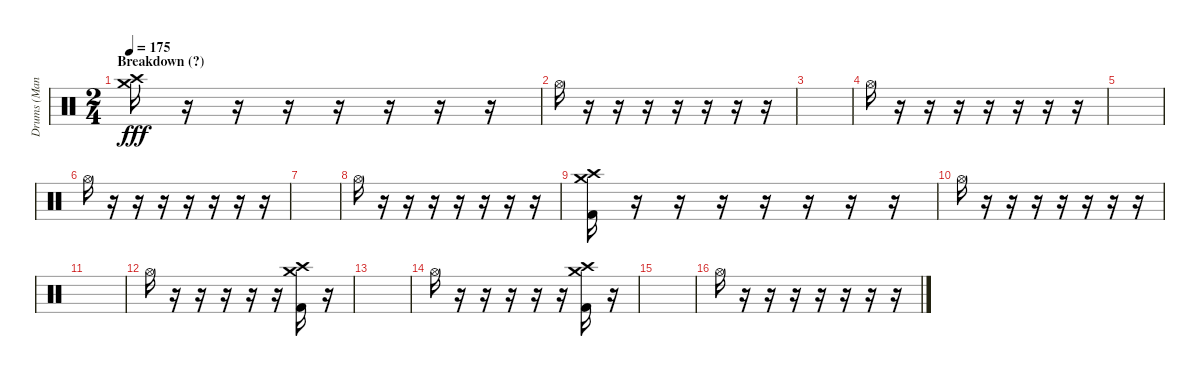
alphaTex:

\track ("Drums (Mancino)" "Drums (Man") {instrument percussion}
\staff {score}
\articulation defaults
\ts (2 4)
\section ("" "Breakdown (?)")
\tempo 175
\clef neutral
\ks c
("Crash medium (hit)" "Crash high (hit)").16{dy fff} r.16 r.16 r.16 r.16 r.16 r.16 r.16 |
"Hi-Hat (open)".16 r.16 r.16 r.16 r.16 r.16 r.16 r.16 |
|
"Hi-Hat (open)".16 r.16 r.16 r.16 r.16 r.16 r.16 r.16 |
|
"Hi-Hat (open)".16 r.16 r.16 r.16 r.16 r.16 r.16 r.16 |
|
"Hi-Hat (open)".16 r.16 r.16 r.16 r.16 r.16 r.16 r.16 |
("Crash medium (hit)" "Crash high (hit)" "Kick (hit) 2").16 r.16 r.16 r.16 r.16 r.16 r.16 r.16 |
"Hi-Hat (open)".16 r.16 r.16 r.16 r.16 r.16 r.16 r.16 |
|
"Hi-Hat (open)".16 r.16 r.16 r.16 r.16 r.16 ("Crash medium (hit)" "Crash high (hit)" "Kick (hit) 2").16 r.16 |
|
"Hi-Hat (open)".16 r.16 r.16 r.16 r.16 r.16 ("Crash medium (hit)" "Crash high (hit)" "Kick (hit) 2").16 r.16 |
|
"Hi-Hat (open)".16 r.16 r.16 r.16 r.16 r.16 r.16 r.16
